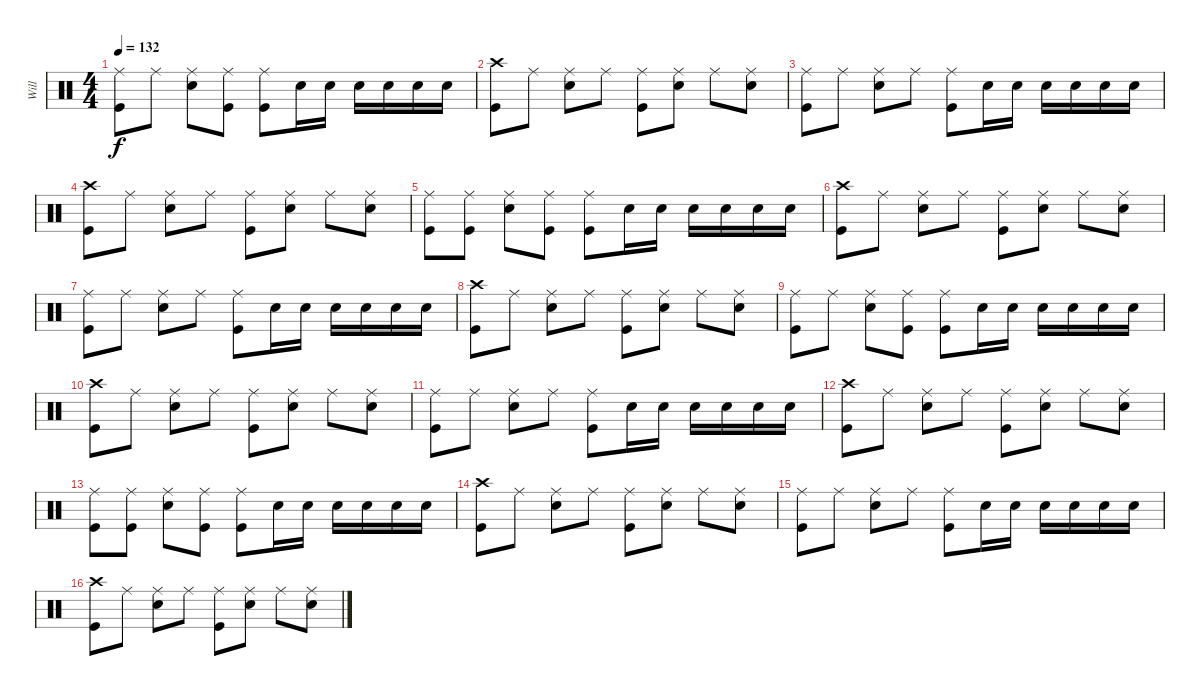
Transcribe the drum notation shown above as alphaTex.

\track ("Will" "Will") {instrument percussion}
\staff {score}
\articulation defaults
\ts (4 4)
\tempo 132
\clef neutral
\ks c
("Ride (middle)" "Kick (hit)").8{dy f} "Ride (middle)".8 ("Ride (middle)" "Snare (hit) 2").8 ("Ride (middle)" "Kick (hit)").8 ("Ride (middle)" "Kick (hit)").8 "Snare (hit) 2".16 "Snare (hit) 2".16 "Snare (hit) 2".16 "Snare (hit) 2".16 "Snare (hit) 2".16 "Snare (hit) 2".16 |
("Crash high (hit)" "Kick (hit)").8 "Ride (middle)".8 ("Ride (middle)" "Snare (hit) 2").8 "Ride (middle)".8 ("Ride (middle)" "Kick (hit)").8 ("Ride (middle)" "Snare (hit) 2").8 "Ride (middle)".8 ("Ride (middle)" "Snare (hit) 2").8 |
("Ride (middle)" "Kick (hit)").8 "Ride (middle)".8 ("Ride (middle)" "Snare (hit) 2").8 "Ride (middle)".8 ("Ride (middle)" "Kick (hit)").8 "Snare (hit) 2".16 "Snare (hit) 2".16 "Snare (hit) 2".16 "Snare (hit) 2".16 "Snare (hit) 2".16 "Snare (hit) 2".16 |
("Crash high (hit)" "Kick (hit)").8 "Ride (middle)".8 ("Ride (middle)" "Snare (hit) 2").8 "Ride (middle)".8 ("Ride (middle)" "Kick (hit)").8 ("Ride (middle)" "Snare (hit) 2").8 "Ride (middle)".8 ("Ride (middle)" "Snare (hit) 2").8 |
("Ride (middle)" "Kick (hit)").8 ("Ride (middle)" "Kick (hit)").8 ("Ride (middle)" "Snare (hit) 2").8 ("Ride (middle)" "Kick (hit)").8 ("Ride (middle)" "Kick (hit)").8 "Snare (hit) 2".16 "Snare (hit) 2".16 "Snare (hit) 2".16 "Snare (hit) 2".16 "Snare (hit) 2".16 "Snare (hit) 2".16 |
("Crash high (hit)" "Kick (hit)").8 "Ride (middle)".8 ("Ride (middle)" "Snare (hit) 2").8 "Ride (middle)".8 ("Ride (middle)" "Kick (hit)").8 ("Ride (middle)" "Snare (hit) 2").8 "Ride (middle)".8 ("Ride (middle)" "Snare (hit) 2").8 |
("Ride (middle)" "Kick (hit)").8 "Ride (middle)".8 ("Ride (middle)" "Snare (hit) 2").8 "Ride (middle)".8 ("Ride (middle)" "Kick (hit)").8 "Snare (hit) 2".16 "Snare (hit) 2".16 "Snare (hit) 2".16 "Snare (hit) 2".16 "Snare (hit) 2".16 "Snare (hit) 2".16 |
("Crash high (hit)" "Kick (hit)").8 "Ride (middle)".8 ("Ride (middle)" "Snare (hit) 2").8 "Ride (middle)".8 ("Ride (middle)" "Kick (hit)").8 ("Ride (middle)" "Snare (hit) 2").8 "Ride (middle)".8 ("Ride (middle)" "Snare (hit) 2").8 |
("Ride (middle)" "Kick (hit)").8 "Ride (middle)".8 ("Ride (middle)" "Snare (hit) 2").8 ("Ride (middle)" "Kick (hit)").8 ("Ride (middle)" "Kick (hit)").8 "Snare (hit) 2".16 "Snare (hit) 2".16 "Snare (hit) 2".16 "Snare (hit) 2".16 "Snare (hit) 2".16 "Snare (hit) 2".16 |
("Crash high (hit)" "Kick (hit)").8 "Ride (middle)".8 ("Ride (middle)" "Snare (hit) 2").8 "Ride (middle)".8 ("Ride (middle)" "Kick (hit)").8 ("Ride (middle)" "Snare (hit) 2").8 "Ride (middle)".8 ("Ride (middle)" "Snare (hit) 2").8 |
("Ride (middle)" "Kick (hit)").8 "Ride (middle)".8 ("Ride (middle)" "Snare (hit) 2").8 "Ride (middle)".8 ("Ride (middle)" "Kick (hit)").8 "Snare (hit) 2".16 "Snare (hit) 2".16 "Snare (hit) 2".16 "Snare (hit) 2".16 "Snare (hit) 2".16 "Snare (hit) 2".16 |
("Crash high (hit)" "Kick (hit)").8 "Ride (middle)".8 ("Ride (middle)" "Snare (hit) 2").8 "Ride (middle)".8 ("Ride (middle)" "Kick (hit)").8 ("Ride (middle)" "Snare (hit) 2").8 "Ride (middle)".8 ("Ride (middle)" "Snare (hit) 2").8 |
("Ride (middle)" "Kick (hit)").8 ("Ride (middle)" "Kick (hit)").8 ("Ride (middle)" "Snare (hit) 2").8 ("Ride (middle)" "Kick (hit)").8 ("Ride (middle)" "Kick (hit)").8 "Snare (hit) 2".16 "Snare (hit) 2".16 "Snare (hit) 2".16 "Snare (hit) 2".16 "Snare (hit) 2".16 "Snare (hit) 2".16 |
("Crash high (hit)" "Kick (hit)").8 "Ride (middle)".8 ("Ride (middle)" "Snare (hit) 2").8 "Ride (middle)".8 ("Ride (middle)" "Kick (hit)").8 ("Ride (middle)" "Snare (hit) 2").8 "Ride (middle)".8 ("Ride (middle)" "Snare (hit) 2").8 |
("Ride (middle)" "Kick (hit)").8 "Ride (middle)".8 ("Ride (middle)" "Snare (hit) 2").8 "Ride (middle)".8 ("Ride (middle)" "Kick (hit)").8 "Snare (hit) 2".16 "Snare (hit) 2".16 "Snare (hit) 2".16 "Snare (hit) 2".16 "Snare (hit) 2".16 "Snare (hit) 2".16 |
("Crash high (hit)" "Kick (hit)").8 "Ride (middle)".8 ("Ride (middle)" "Snare (hit) 2").8 "Ride (middle)".8 ("Ride (middle)" "Kick (hit)").8 ("Ride (middle)" "Snare (hit) 2").8 "Ride (middle)".8 ("Ride (middle)" "Snare (hit) 2").8
